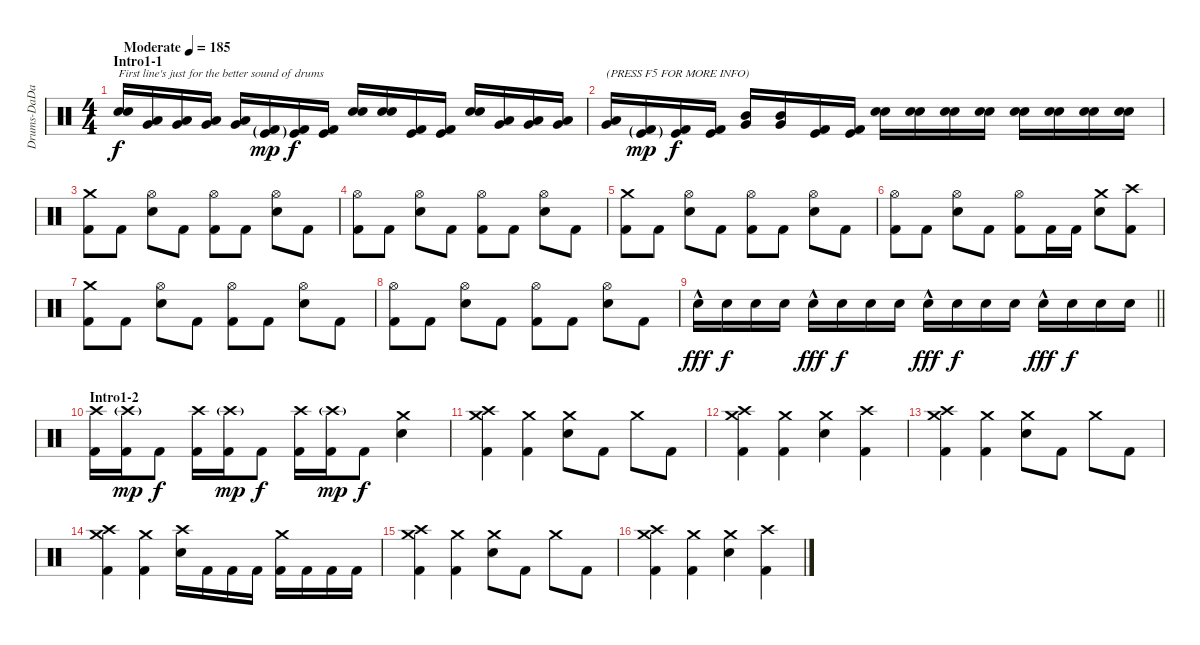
\track ("Drums-DaDa" "Drums-DaDa") {instrument percussion}
\staff {score}
\articulation defaults
\ts (4 4)
\section ("" "Intro1-1")
\tempo (185 "Moderate")
\clef neutral
\ks c
("Snare (hit) 2" "Electric Snare (hit)").16{txt "First line's just for the better sound of drums " dy f} ("Very Low Tom (hit)" "Low Tom (hit)").16 ("Very Low Tom (hit)" "Low Tom (hit)").16 ("Low Floor Tom (hit)" "Very Low Tom (hit)").16 ("Low Floor Tom (hit)" "Very Low Tom (hit)").16 ("Kick (hit)"{g} "Kick (hit) 2"{g}).16{dy mp} ("Kick (hit)" "Kick (hit) 2").16{dy f} ("Kick (hit)" "Kick (hit) 2").16 ("Snare (hit) 2" "Electric Snare (hit)").16 ("Snare (hit) 2" "Electric Snare (hit)").16 ("Kick (hit)" "Kick (hit) 2").16 ("Kick (hit)" "Kick (hit) 2").16 ("Snare (hit) 2" "Electric Snare (hit)").16 ("Very Low Tom (hit)" "Low Tom (hit)").16 ("Very Low Tom (hit)" "Low Tom (hit)").16 ("Low Floor Tom (hit)" "Very Low Tom (hit)").16 |
("Low Floor Tom (hit)" "Very Low Tom (hit)").16{txt "(PRESS F5 FOR MORE INFO)"} ("Kick (hit)"{g} "Kick (hit) 2"{g}).16{dy mp} ("Kick (hit)" "Kick (hit) 2").16{dy f} ("Kick (hit)" "Kick (hit) 2").16 ("Very Low Tom (hit)" "Mid Tom (hit)").16 ("Very Low Tom (hit)" "Mid Tom (hit)").16 ("Kick (hit)" "Kick (hit) 2").16 ("Kick (hit)" "Kick (hit) 2").16 ("Snare (hit) 2" "Electric Snare (hit)").16 ("Snare (hit) 2" "Electric Snare (hit)").16 ("Snare (hit) 2" "Electric Snare (hit)").16 ("Snare (hit) 2" "Electric Snare (hit)").16 ("Snare (hit) 2" "Electric Snare (hit)").16 ("Snare (hit) 2" "Electric Snare (hit)").16 ("Snare (hit) 2" "Electric Snare (hit)").16 ("Snare (hit) 2" "Electric Snare (hit)").16 |
("Crash medium (hit)" "Kick (hit) 2").8 "Kick (hit) 2".8 ("Hi-Hat (open)" "Electric Snare (hit)").8 "Kick (hit) 2".8 ("Hi-Hat (open)" "Kick (hit) 2").8 "Kick (hit) 2".8 ("Hi-Hat (open)" "Electric Snare (hit)").8 "Kick (hit) 2".8 |
("Hi-Hat (open)" "Kick (hit) 2").8 "Kick (hit) 2".8 ("Hi-Hat (open)" "Electric Snare (hit)").8 "Kick (hit) 2".8 ("Hi-Hat (open)" "Kick (hit) 2").8 "Kick (hit) 2".8 ("Hi-Hat (open)" "Electric Snare (hit)").8 "Kick (hit) 2".8 |
("Crash medium (hit)" "Kick (hit) 2").8 "Kick (hit) 2".8 ("Hi-Hat (open)" "Electric Snare (hit)").8 "Kick (hit) 2".8 ("Hi-Hat (open)" "Kick (hit) 2").8 "Kick (hit) 2".8 ("Hi-Hat (open)" "Electric Snare (hit)").8 "Kick (hit) 2".8 |
("Hi-Hat (open)" "Kick (hit) 2").8 "Kick (hit) 2".8 ("Hi-Hat (open)" "Electric Snare (hit)").8 "Kick (hit) 2".8 ("Hi-Hat (open)" "Kick (hit) 2").8 "Kick (hit) 2".16 "Kick (hit) 2".16 ("Crash medium (hit)" "Electric Snare (hit)").8 ("Crash high (hit)" "Kick (hit) 2").8 |
("Crash medium (hit)" "Kick (hit) 2").8 "Kick (hit) 2".8 ("Hi-Hat (open)" "Electric Snare (hit)").8 "Kick (hit) 2".8 ("Hi-Hat (open)" "Kick (hit) 2").8 "Kick (hit) 2".8 ("Hi-Hat (open)" "Electric Snare (hit)").8 "Kick (hit) 2".8 |
("Hi-Hat (open)" "Kick (hit) 2").8 "Kick (hit) 2".8 ("Hi-Hat (open)" "Electric Snare (hit)").8 "Kick (hit) 2".8 ("Hi-Hat (open)" "Kick (hit) 2").8 "Kick (hit) 2".8 ("Hi-Hat (open)" "Electric Snare (hit)").8 "Kick (hit) 2".8 |
\barLineRight lightlight "Electric Snare (hit)"{hac}.16{dy fff} "Electric Snare (hit)".16{dy f} "Electric Snare (hit)".16 "Electric Snare (hit)".16 "Electric Snare (hit)"{hac}.16{dy fff} "Electric Snare (hit)".16{dy f} "Electric Snare (hit)".16 "Electric Snare (hit)".16 "Electric Snare (hit)"{hac}.16{dy fff} "Electric Snare (hit)".16{dy f} "Electric Snare (hit)".16 "Electric Snare (hit)".16 "Electric Snare (hit)"{hac}.16{dy fff} "Electric Snare (hit)".16{dy f} "Electric Snare (hit)".16 "Electric Snare (hit)".16
|
\section ("" "Intro1-2")
("Crash high (hit)" "Kick (hit) 2").16 ("Crash high (hit)"{g} "Kick (hit) 2").16{dy mp} "Kick (hit) 2".8{dy f} ("Crash high (hit)" "Kick (hit) 2").16 ("Crash high (hit)"{g} "Kick (hit) 2").16{dy mp} "Kick (hit) 2".8{dy f} ("Crash high (hit)" "Kick (hit) 2").16 ("Crash high (hit)"{g} "Kick (hit) 2").16{dy mp} "Kick (hit) 2".8{dy f} ("Crash medium (hit)" "Electric Snare (hit)").4 |
("Crash medium (hit)" "Crash high (hit)" "Kick (hit) 2").4 ("Crash medium (hit)" "Kick (hit) 2").4 ("Crash medium (hit)" "Electric Snare (hit)").8 "Kick (hit) 2".8 "Crash medium (hit)".8 "Kick (hit) 2".8 |
("Crash medium (hit)" "Crash high (hit)" "Kick (hit) 2").4 ("Crash medium (hit)" "Kick (hit) 2").4 ("Crash medium (hit)" "Electric Snare (hit)").4 ("Crash high (hit)" "Kick (hit) 2").4 |
("Crash medium (hit)" "Crash high (hit)" "Kick (hit) 2").4 ("Crash medium (hit)" "Kick (hit) 2").4 ("Crash medium (hit)" "Electric Snare (hit)").8 "Kick (hit) 2".8 "Crash medium (hit)".8 "Kick (hit) 2".8 |
("Crash medium (hit)" "Crash high (hit)" "Kick (hit) 2").4 ("Crash medium (hit)" "Kick (hit) 2").4 ("Crash high (hit)" "Electric Snare (hit)").16 "Kick (hit) 2".16 "Kick (hit) 2".16 "Kick (hit) 2".16 ("Crash medium (hit)" "Kick (hit) 2").16 "Kick (hit) 2".16 "Kick (hit) 2".16 "Kick (hit) 2".16 |
("Crash medium (hit)" "Crash high (hit)" "Kick (hit) 2").4 ("Crash medium (hit)" "Kick (hit) 2").4 ("Crash medium (hit)" "Electric Snare (hit)").8 "Kick (hit) 2".8 "Crash medium (hit)".8 "Kick (hit) 2".8 |
("Crash medium (hit)" "Crash high (hit)" "Kick (hit) 2").4 ("Crash medium (hit)" "Kick (hit) 2").4 ("Crash medium (hit)" "Electric Snare (hit)").4 ("Crash high (hit)" "Kick (hit) 2").4
